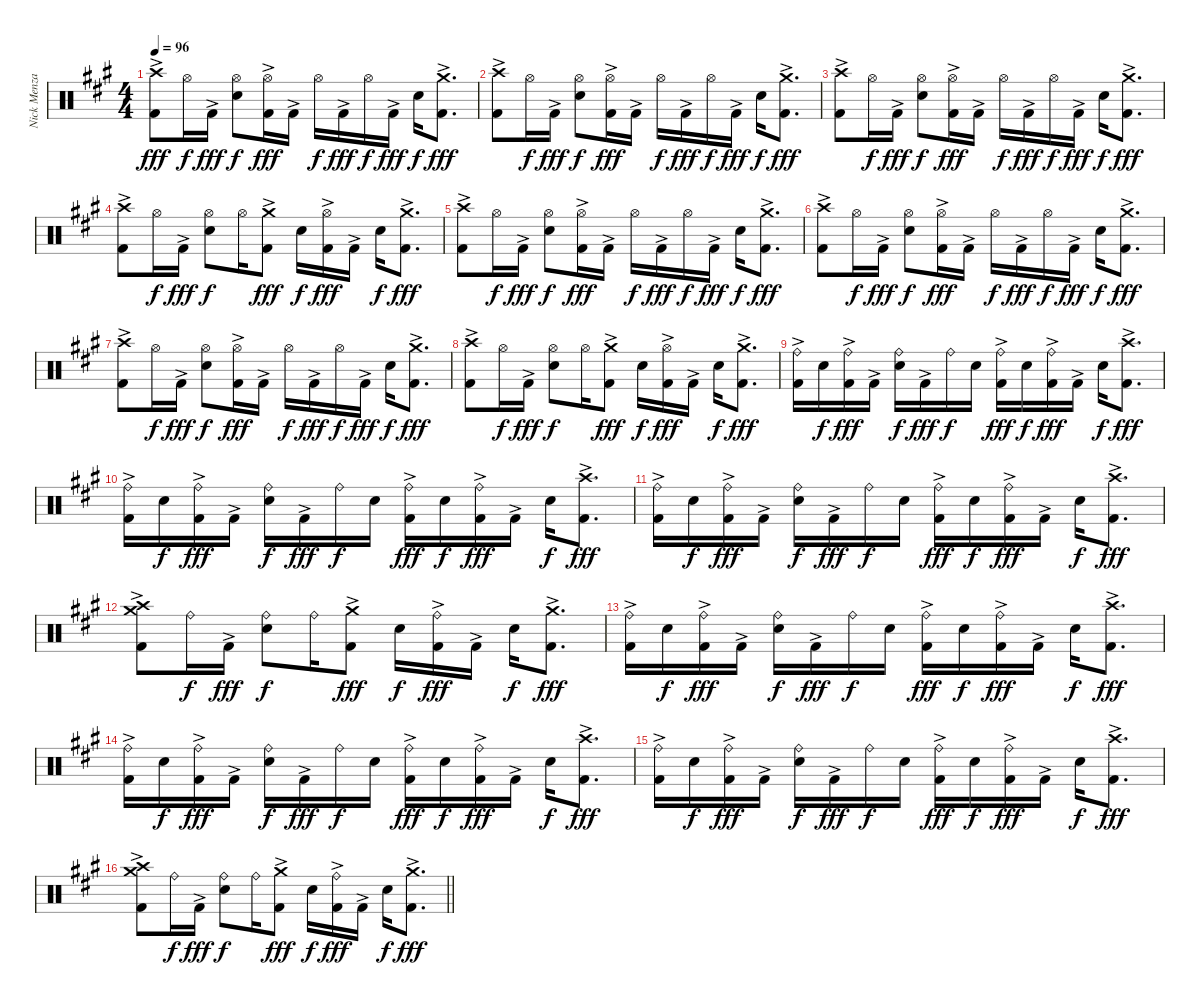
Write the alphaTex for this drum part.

\track ("Nick Menza" "Nick Menza") {instrument percussion}
\staff {score}
\articulation defaults
\ts (4 4)
\tempo 96
\clef neutral
\ks f#minor
("Crash high (hit)" "Kick (hit) 2"{ac}).8{dy fff} "Hi-Hat (open)".16{dy f} "Kick (hit) 2"{ac}.16{dy fff} ("Hi-Hat (open)" "Snare (hit) 2").8{dy f} ("Hi-Hat (open)" "Kick (hit) 2"{ac}).16{dy fff} "Kick (hit) 2"{ac}.16 "Hi-Hat (open)".16{dy f} "Kick (hit) 2"{ac}.16{dy fff} "Hi-Hat (open)".16{dy f} "Kick (hit) 2"{ac}.16{dy fff} "Snare (hit) 2".16{dy f} ("Crash medium (hit)" "Kick (hit) 2"{ac}).8{d dy fff} |
("Crash high (hit)" "Kick (hit) 2"{ac}).8 "Hi-Hat (open)".16{dy f} "Kick (hit) 2"{ac}.16{dy fff} ("Hi-Hat (open)" "Snare (hit) 2").8{dy f} ("Hi-Hat (open)" "Kick (hit) 2"{ac}).16{dy fff} "Kick (hit) 2"{ac}.16 "Hi-Hat (open)".16{dy f} "Kick (hit) 2"{ac}.16{dy fff} "Hi-Hat (open)".16{dy f} "Kick (hit) 2"{ac}.16{dy fff} "Snare (hit) 2".16{dy f} ("Crash medium (hit)" "Kick (hit) 2"{ac}).8{d dy fff} |
("Crash high (hit)" "Kick (hit) 2"{ac}).8 "Hi-Hat (open)".16{dy f} "Kick (hit) 2"{ac}.16{dy fff} ("Hi-Hat (open)" "Snare (hit) 2").8{dy f} ("Hi-Hat (open)" "Kick (hit) 2"{ac}).16{dy fff} "Kick (hit) 2"{ac}.16 "Hi-Hat (open)".16{dy f} "Kick (hit) 2"{ac}.16{dy fff} "Hi-Hat (open)".16{dy f} "Kick (hit) 2"{ac}.16{dy fff} "Snare (hit) 2".16{dy f} ("Crash medium (hit)" "Kick (hit) 2"{ac}).8{d dy fff} |
("Crash high (hit)" "Kick (hit) 2"{ac}).8 "Hi-Hat (open)".16{dy f} "Kick (hit) 2"{ac}.16{dy fff} ("Hi-Hat (open)" "Snare (hit) 2").8{dy f} "Hi-Hat (open)".16 ("Crash medium (hit)" "Kick (hit) 2"{ac}).8{dy fff} "Snare (hit) 2".16{dy f} ("Hi-Hat (open)" "Kick (hit) 2"{ac}).16{dy fff} "Kick (hit) 2"{ac}.16 "Snare (hit) 2".16{dy f} ("Crash medium (hit)" "Kick (hit) 2"{ac}).8{d dy fff} |
("Crash high (hit)" "Kick (hit) 2"{ac}).8 "Hi-Hat (open)".16{dy f} "Kick (hit) 2"{ac}.16{dy fff} ("Hi-Hat (open)" "Snare (hit) 2").8{dy f} ("Hi-Hat (open)" "Kick (hit) 2"{ac}).16{dy fff} "Kick (hit) 2"{ac}.16 "Hi-Hat (open)".16{dy f} "Kick (hit) 2"{ac}.16{dy fff} "Hi-Hat (open)".16{dy f} "Kick (hit) 2"{ac}.16{dy fff} "Snare (hit) 2".16{dy f} ("Crash medium (hit)" "Kick (hit) 2"{ac}).8{d dy fff} |
("Crash high (hit)" "Kick (hit) 2"{ac}).8 "Hi-Hat (open)".16{dy f} "Kick (hit) 2"{ac}.16{dy fff} ("Hi-Hat (open)" "Snare (hit) 2").8{dy f} ("Hi-Hat (open)" "Kick (hit) 2"{ac}).16{dy fff} "Kick (hit) 2"{ac}.16 "Hi-Hat (open)".16{dy f} "Kick (hit) 2"{ac}.16{dy fff} "Hi-Hat (open)".16{dy f} "Kick (hit) 2"{ac}.16{dy fff} "Snare (hit) 2".16{dy f} ("Crash medium (hit)" "Kick (hit) 2"{ac}).8{d dy fff} |
("Crash high (hit)" "Kick (hit) 2"{ac}).8 "Hi-Hat (open)".16{dy f} "Kick (hit) 2"{ac}.16{dy fff} ("Hi-Hat (open)" "Snare (hit) 2").8{dy f} ("Hi-Hat (open)" "Kick (hit) 2"{ac}).16{dy fff} "Kick (hit) 2"{ac}.16 "Hi-Hat (open)".16{dy f} "Kick (hit) 2"{ac}.16{dy fff} "Hi-Hat (open)".16{dy f} "Kick (hit) 2"{ac}.16{dy fff} "Snare (hit) 2".16{dy f} ("Crash medium (hit)" "Kick (hit) 2"{ac}).8{d dy fff} |
("Crash high (hit)" "Kick (hit) 2"{ac}).8 "Hi-Hat (open)".16{dy f} "Kick (hit) 2"{ac}.16{dy fff} ("Hi-Hat (open)" "Snare (hit) 2").8{dy f} "Hi-Hat (open)".16 ("Crash medium (hit)" "Kick (hit) 2"{ac}).8{dy fff} "Snare (hit) 2".16{dy f} ("Hi-Hat (open)" "Kick (hit) 2"{ac}).16{dy fff} "Kick (hit) 2"{ac}.16 "Snare (hit) 2".16{dy f} ("Crash medium (hit)" "Kick (hit) 2"{ac}).8{d dy fff} |
("Ride (bell)" "Kick (hit) 2"{ac}).16 "Snare (hit) 2".16{dy f} ("Ride (bell)" "Kick (hit) 2"{ac}).16{dy fff} "Kick (hit) 2"{ac}.16 ("Ride (bell)" "Snare (hit) 2").16{dy f} "Kick (hit) 2"{ac}.16{dy fff} "Ride (bell)".16{dy f} "Snare (hit) 2".16 ("Ride (bell)" "Kick (hit) 2"{ac}).16{dy fff} "Snare (hit) 2".16{dy f} ("Ride (bell)" "Kick (hit) 2"{ac}).16{dy fff} "Kick (hit) 2"{ac}.16 "Snare (hit) 2".16{dy f} ("Crash high (hit)" "Kick (hit) 2"{ac}).8{d dy fff} |
("Ride (bell)" "Kick (hit) 2"{ac}).16 "Snare (hit) 2".16{dy f} ("Ride (bell)" "Kick (hit) 2"{ac}).16{dy fff} "Kick (hit) 2"{ac}.16 ("Ride (bell)" "Snare (hit) 2").16{dy f} "Kick (hit) 2"{ac}.16{dy fff} "Ride (bell)".16{dy f} "Snare (hit) 2".16 ("Ride (bell)" "Kick (hit) 2"{ac}).16{dy fff} "Snare (hit) 2".16{dy f} ("Ride (bell)" "Kick (hit) 2"{ac}).16{dy fff} "Kick (hit) 2"{ac}.16 "Snare (hit) 2".16{dy f} ("Crash high (hit)" "Kick (hit) 2"{ac}).8{d dy fff} |
("Ride (bell)" "Kick (hit) 2"{ac}).16 "Snare (hit) 2".16{dy f} ("Ride (bell)" "Kick (hit) 2"{ac}).16{dy fff} "Kick (hit) 2"{ac}.16 ("Ride (bell)" "Snare (hit) 2").16{dy f} "Kick (hit) 2"{ac}.16{dy fff} "Ride (bell)".16{dy f} "Snare (hit) 2".16 ("Ride (bell)" "Kick (hit) 2"{ac}).16{dy fff} "Snare (hit) 2".16{dy f} ("Ride (bell)" "Kick (hit) 2"{ac}).16{dy fff} "Kick (hit) 2"{ac}.16 "Snare (hit) 2".16{dy f} ("Crash high (hit)" "Kick (hit) 2"{ac}).8{d dy fff} |
("Crash high (hit)" "Crash medium (hit)" "Kick (hit) 2"{ac}).8 "Ride (bell)".16{dy f} "Kick (hit) 2"{ac}.16{dy fff} ("Ride (bell)" "Snare (hit) 2").8{dy f} "Ride (bell)".16 ("Crash medium (hit)" "Kick (hit) 2"{ac}).8{dy fff} "Snare (hit) 2".16{dy f} ("Ride (bell)" "Kick (hit) 2"{ac}).16{dy fff} "Kick (hit) 2"{ac}.16 "Snare (hit) 2".16{dy f} ("Crash medium (hit)" "Kick (hit) 2"{ac}).8{d dy fff} |
("Ride (bell)" "Kick (hit) 2"{ac}).16 "Snare (hit) 2".16{dy f} ("Ride (bell)" "Kick (hit) 2"{ac}).16{dy fff} "Kick (hit) 2"{ac}.16 ("Ride (bell)" "Snare (hit) 2").16{dy f} "Kick (hit) 2"{ac}.16{dy fff} "Ride (bell)".16{dy f} "Snare (hit) 2".16 ("Ride (bell)" "Kick (hit) 2"{ac}).16{dy fff} "Snare (hit) 2".16{dy f} ("Ride (bell)" "Kick (hit) 2"{ac}).16{dy fff} "Kick (hit) 2"{ac}.16 "Snare (hit) 2".16{dy f} ("Crash high (hit)" "Kick (hit) 2"{ac}).8{d dy fff} |
("Ride (bell)" "Kick (hit) 2"{ac}).16 "Snare (hit) 2".16{dy f} ("Ride (bell)" "Kick (hit) 2"{ac}).16{dy fff} "Kick (hit) 2"{ac}.16 ("Ride (bell)" "Snare (hit) 2").16{dy f} "Kick (hit) 2"{ac}.16{dy fff} "Ride (bell)".16{dy f} "Snare (hit) 2".16 ("Ride (bell)" "Kick (hit) 2"{ac}).16{dy fff} "Snare (hit) 2".16{dy f} ("Ride (bell)" "Kick (hit) 2"{ac}).16{dy fff} "Kick (hit) 2"{ac}.16 "Snare (hit) 2".16{dy f} ("Crash high (hit)" "Kick (hit) 2"{ac}).8{d dy fff} |
("Ride (bell)" "Kick (hit) 2"{ac}).16 "Snare (hit) 2".16{dy f} ("Ride (bell)" "Kick (hit) 2"{ac}).16{dy fff} "Kick (hit) 2"{ac}.16 ("Ride (bell)" "Snare (hit) 2").16{dy f} "Kick (hit) 2"{ac}.16{dy fff} "Ride (bell)".16{dy f} "Snare (hit) 2".16 ("Ride (bell)" "Kick (hit) 2"{ac}).16{dy fff} "Snare (hit) 2".16{dy f} ("Ride (bell)" "Kick (hit) 2"{ac}).16{dy fff} "Kick (hit) 2"{ac}.16 "Snare (hit) 2".16{dy f} ("Crash high (hit)" "Kick (hit) 2"{ac}).8{d dy fff} |
\barLineRight lightlight
("Crash high (hit)" "Crash medium (hit)" "Kick (hit) 2"{ac}).8 "Ride (bell)".16{dy f} "Kick (hit) 2"{ac}.16{dy fff} ("Ride (bell)" "Snare (hit) 2").8{dy f} "Ride (bell)".16 ("Crash medium (hit)" "Kick (hit) 2"{ac}).8{dy fff} "Snare (hit) 2".16{dy f} ("Ride (bell)" "Kick (hit) 2"{ac}).16{dy fff} "Kick (hit) 2"{ac}.16 "Snare (hit) 2".16{dy f} ("Crash medium (hit)" "Kick (hit) 2"{ac}).8{d dy fff}
